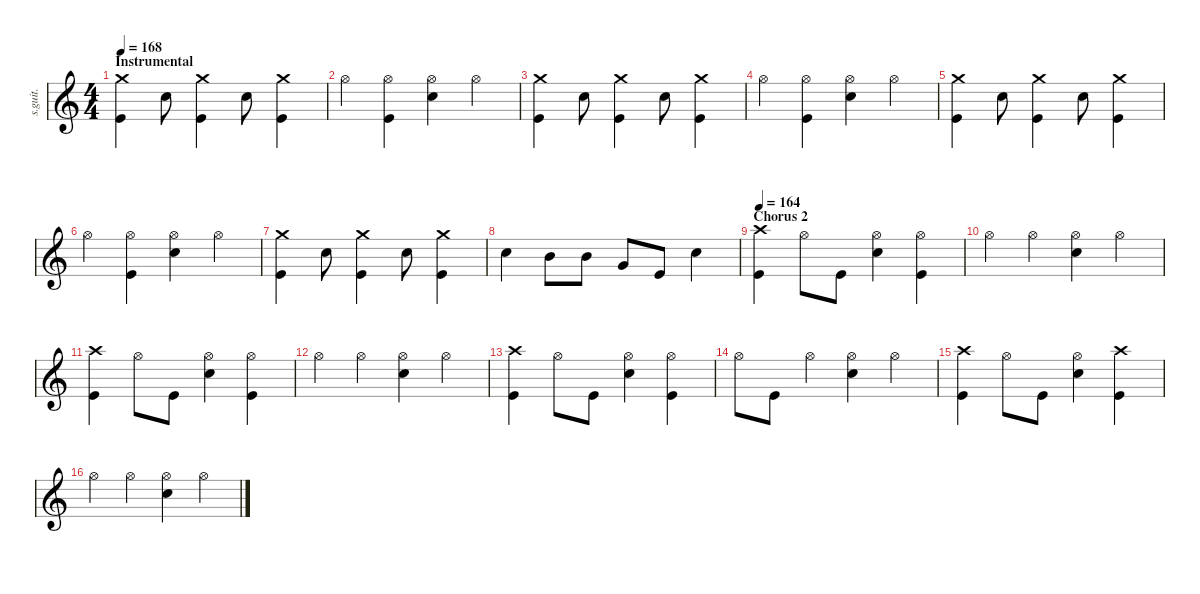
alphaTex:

\defaultSystemsLayout 4
\hideDynamics
\bracketExtendMode nobrackets
\track ("John Dolmayan" "s.guit.") {instrument percussion}
\staff {score}
\articulation defaults
\ts (4 4)
\section ("" "Instrumental")
\tempo 168
\clef g2
\ks c
("Kick (hit)" "Crash medium (hit)").4{lyrics (0 "") lyrics (1 "") lyrics (2 "") lyrics (3 "") lyrics (4 "") dy f} "Snare (hit) 2".8{lyrics (0 "") lyrics (1 "") lyrics (2 "") lyrics (3 "") lyrics (4 "")} ("Kick (hit)" "Crash medium (hit)").4{lyrics (0 "") lyrics (1 "") lyrics (2 "") lyrics (3 "") lyrics (4 "")} "Snare (hit) 2".8{lyrics (0 "") lyrics (1 "") lyrics (2 "") lyrics (3 "") lyrics (4 "")} ("Kick (hit)" "Crash medium (hit)").4{lyrics (0 "") lyrics (1 "") lyrics (2 "") lyrics (3 "") lyrics (4 "")} |
"Hi-Hat (open)".4{lyrics (0 "") lyrics (1 "") lyrics (2 "") lyrics (3 "") lyrics (4 "")} ("Hi-Hat (open)" "Kick (hit)").4{lyrics (0 "") lyrics (1 "") lyrics (2 "") lyrics (3 "") lyrics (4 "")} ("Hi-Hat (open)" "Snare (hit) 2").4{lyrics (0 "") lyrics (1 "") lyrics (2 "") lyrics (3 "") lyrics (4 "")} "Hi-Hat (open)".4{lyrics (0 "") lyrics (1 "") lyrics (2 "") lyrics (3 "") lyrics (4 "")} |
("Kick (hit)" "Crash medium (hit)").4{lyrics (0 "") lyrics (1 "") lyrics (2 "") lyrics (3 "") lyrics (4 "")} "Snare (hit) 2".8{lyrics (0 "") lyrics (1 "") lyrics (2 "") lyrics (3 "") lyrics (4 "")} ("Kick (hit)" "Crash medium (hit)").4{lyrics (0 "") lyrics (1 "") lyrics (2 "") lyrics (3 "") lyrics (4 "")} "Snare (hit) 2".8{lyrics (0 "") lyrics (1 "") lyrics (2 "") lyrics (3 "") lyrics (4 "")} ("Kick (hit)" "Crash medium (hit)").4{lyrics (0 "") lyrics (1 "") lyrics (2 "") lyrics (3 "") lyrics (4 "")} |
"Hi-Hat (open)".4{lyrics (0 "") lyrics (1 "") lyrics (2 "") lyrics (3 "") lyrics (4 "")} ("Hi-Hat (open)" "Kick (hit)").4{lyrics (0 "") lyrics (1 "") lyrics (2 "") lyrics (3 "") lyrics (4 "")} ("Hi-Hat (open)" "Snare (hit) 2").4{lyrics (0 "") lyrics (1 "") lyrics (2 "") lyrics (3 "") lyrics (4 "")} "Hi-Hat (open)".4{lyrics (0 "") lyrics (1 "") lyrics (2 "") lyrics (3 "") lyrics (4 "")} |
("Kick (hit)" "Crash medium (hit)").4{lyrics (0 "") lyrics (1 "") lyrics (2 "") lyrics (3 "") lyrics (4 "")} "Snare (hit) 2".8{lyrics (0 "") lyrics (1 "") lyrics (2 "") lyrics (3 "") lyrics (4 "")} ("Kick (hit)" "Crash medium (hit)").4{lyrics (0 "") lyrics (1 "") lyrics (2 "") lyrics (3 "") lyrics (4 "")} "Snare (hit) 2".8{lyrics (0 "") lyrics (1 "") lyrics (2 "") lyrics (3 "") lyrics (4 "")} ("Kick (hit)" "Crash medium (hit)").4{lyrics (0 "") lyrics (1 "") lyrics (2 "") lyrics (3 "") lyrics (4 "")} |
"Hi-Hat (open)".4{lyrics (0 "") lyrics (1 "") lyrics (2 "") lyrics (3 "") lyrics (4 "")} ("Hi-Hat (open)" "Kick (hit)").4{lyrics (0 "") lyrics (1 "") lyrics (2 "") lyrics (3 "") lyrics (4 "")} ("Hi-Hat (open)" "Snare (hit) 2").4{lyrics (0 "") lyrics (1 "") lyrics (2 "") lyrics (3 "") lyrics (4 "")} "Hi-Hat (open)".4{lyrics (0 "") lyrics (1 "") lyrics (2 "") lyrics (3 "") lyrics (4 "")} |
("Kick (hit)" "Crash medium (hit)").4{lyrics (0 "") lyrics (1 "") lyrics (2 "") lyrics (3 "") lyrics (4 "")} "Snare (hit) 2".8{lyrics (0 "") lyrics (1 "") lyrics (2 "") lyrics (3 "") lyrics (4 "")} ("Kick (hit)" "Crash medium (hit)").4{lyrics (0 "") lyrics (1 "") lyrics (2 "") lyrics (3 "") lyrics (4 "")} "Snare (hit) 2".8{lyrics (0 "") lyrics (1 "") lyrics (2 "") lyrics (3 "") lyrics (4 "")} ("Kick (hit)" "Crash medium (hit)").4{lyrics (0 "") lyrics (1 "") lyrics (2 "") lyrics (3 "") lyrics (4 "")} |
"Snare (hit) 2".4{lyrics (0 "") lyrics (1 "") lyrics (2 "") lyrics (3 "") lyrics (4 "")} "Mid Tom (hit)".8{lyrics (0 "") lyrics (1 "") lyrics (2 "") lyrics (3 "") lyrics (4 "")} "Mid Tom (hit)".8{lyrics (0 "") lyrics (1 "") lyrics (2 "") lyrics (3 "") lyrics (4 "")} "Very Low Tom (hit)".8{lyrics (0 "") lyrics (1 "") lyrics (2 "") lyrics (3 "") lyrics (4 "")} "Kick (hit)".8{lyrics (0 "") lyrics (1 "") lyrics (2 "") lyrics (3 "") lyrics (4 "")} "Snare (hit) 2".4{lyrics (0 "") lyrics (1 "") lyrics (2 "") lyrics (3 "") lyrics (4 "")} |
\section ("" "Chorus 2")
\tempo 164
("Crash high (hit)" "Kick (hit)").4{lyrics (0 "") lyrics (1 "") lyrics (2 "") lyrics (3 "") lyrics (4 "")} "Hi-Hat (open)".8{lyrics (0 "") lyrics (1 "") lyrics (2 "") lyrics (3 "") lyrics (4 "")} "Kick (hit)".8{lyrics (0 "") lyrics (1 "") lyrics (2 "") lyrics (3 "") lyrics (4 "")} ("Hi-Hat (open)" "Snare (hit) 2").4{lyrics (0 "") lyrics (1 "") lyrics (2 "") lyrics (3 "") lyrics (4 "")} ("Kick (hit)" "Hi-Hat (open)").4{lyrics (0 "") lyrics (1 "") lyrics (2 "") lyrics (3 "") lyrics (4 "")} |
"Hi-Hat (open)".4{lyrics (0 "") lyrics (1 "") lyrics (2 "") lyrics (3 "") lyrics (4 "")} "Hi-Hat (open)".4{lyrics (0 "") lyrics (1 "") lyrics (2 "") lyrics (3 "") lyrics (4 "")} ("Hi-Hat (open)" "Snare (hit) 2").4{lyrics (0 "") lyrics (1 "") lyrics (2 "") lyrics (3 "") lyrics (4 "")} "Hi-Hat (open)".4{lyrics (0 "") lyrics (1 "") lyrics (2 "") lyrics (3 "") lyrics (4 "")} |
("Crash high (hit)" "Kick (hit)").4{lyrics (0 "") lyrics (1 "") lyrics (2 "") lyrics (3 "") lyrics (4 "")} "Hi-Hat (open)".8{lyrics (0 "") lyrics (1 "") lyrics (2 "") lyrics (3 "") lyrics (4 "")} "Kick (hit)".8{lyrics (0 "") lyrics (1 "") lyrics (2 "") lyrics (3 "") lyrics (4 "")} ("Hi-Hat (open)" "Snare (hit) 2").4{lyrics (0 "") lyrics (1 "") lyrics (2 "") lyrics (3 "") lyrics (4 "")} ("Kick (hit)" "Hi-Hat (open)").4{lyrics (0 "") lyrics (1 "") lyrics (2 "") lyrics (3 "") lyrics (4 "")} |
"Hi-Hat (open)".4{lyrics (0 "") lyrics (1 "") lyrics (2 "") lyrics (3 "") lyrics (4 "")} "Hi-Hat (open)".4{lyrics (0 "") lyrics (1 "") lyrics (2 "") lyrics (3 "") lyrics (4 "")} ("Hi-Hat (open)" "Snare (hit) 2").4{lyrics (0 "") lyrics (1 "") lyrics (2 "") lyrics (3 "") lyrics (4 "")} "Hi-Hat (open)".4{lyrics (0 "") lyrics (1 "") lyrics (2 "") lyrics (3 "") lyrics (4 "")} |
("Crash high (hit)" "Kick (hit)").4{lyrics (0 "") lyrics (1 "") lyrics (2 "") lyrics (3 "") lyrics (4 "")} "Hi-Hat (open)".8{lyrics (0 "") lyrics (1 "") lyrics (2 "") lyrics (3 "") lyrics (4 "")} "Kick (hit)".8{lyrics (0 "") lyrics (1 "") lyrics (2 "") lyrics (3 "") lyrics (4 "")} ("Hi-Hat (open)" "Snare (hit) 2").4{lyrics (0 "") lyrics (1 "") lyrics (2 "") lyrics (3 "") lyrics (4 "")} ("Kick (hit)" "Hi-Hat (open)").4{lyrics (0 "") lyrics (1 "") lyrics (2 "") lyrics (3 "") lyrics (4 "")} |
"Hi-Hat (open)".8{lyrics (0 "") lyrics (1 "") lyrics (2 "") lyrics (3 "") lyrics (4 "")} "Kick (hit)".8{lyrics (0 "") lyrics (1 "") lyrics (2 "") lyrics (3 "") lyrics (4 "")} "Hi-Hat (open)".4{lyrics (0 "") lyrics (1 "") lyrics (2 "") lyrics (3 "") lyrics (4 "")} ("Hi-Hat (open)" "Snare (hit) 2").4{lyrics (0 "") lyrics (1 "") lyrics (2 "") lyrics (3 "") lyrics (4 "")} "Hi-Hat (open)".4{lyrics (0 "") lyrics (1 "") lyrics (2 "") lyrics (3 "") lyrics (4 "")} |
("Crash high (hit)" "Kick (hit)").4{lyrics (0 "") lyrics (1 "") lyrics (2 "") lyrics (3 "") lyrics (4 "")} "Hi-Hat (open)".8{lyrics (0 "") lyrics (1 "") lyrics (2 "") lyrics (3 "") lyrics (4 "")} "Kick (hit)".8{lyrics (0 "") lyrics (1 "") lyrics (2 "") lyrics (3 "") lyrics (4 "")} ("Hi-Hat (open)" "Snare (hit) 2").4{lyrics (0 "") lyrics (1 "") lyrics (2 "") lyrics (3 "") lyrics (4 "")} ("Kick (hit)" "Crash high (hit)").4{lyrics (0 "") lyrics (1 "") lyrics (2 "") lyrics (3 "") lyrics (4 "")} |
"Hi-Hat (open)".4{lyrics (0 "") lyrics (1 "") lyrics (2 "") lyrics (3 "") lyrics (4 "")} "Hi-Hat (open)".4{lyrics (0 "") lyrics (1 "") lyrics (2 "") lyrics (3 "") lyrics (4 "")} ("Hi-Hat (open)" "Snare (hit) 2").4{lyrics (0 "") lyrics (1 "") lyrics (2 "") lyrics (3 "") lyrics (4 "")} "Hi-Hat (open)".4{lyrics (0 "") lyrics (1 "") lyrics (2 "") lyrics (3 "") lyrics (4 "")}
